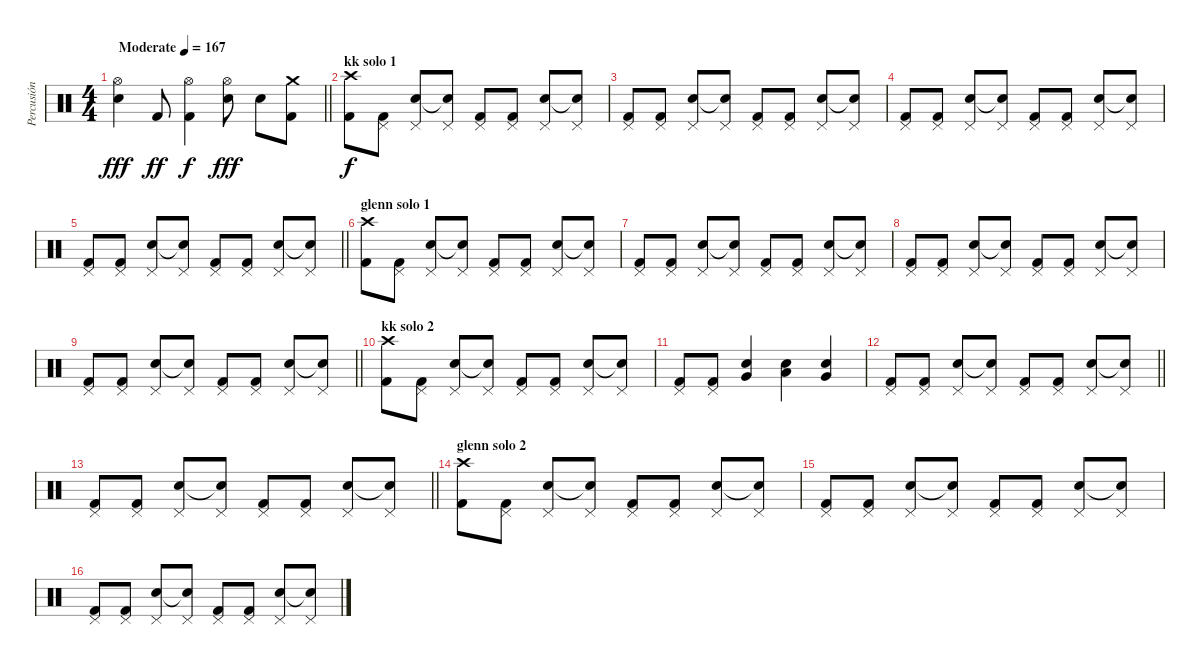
\track ("Percusión" "Percusión") {instrument percussion}
\staff {score}
\articulation defaults
\ts (4 4)
\tempo (167 "Moderate")
\clef neutral
\barLineRight lightlight
\ks c
("Hi-Hat (open)" "Snare (hit) 2").4{dy fff} "Kick (hit) 2".8{dy ff} ("Hi-Hat (open)" "Kick (hit) 2").4{dy f} ("Hi-Hat (open)" "Snare (hit) 2").8{dy fff} "Snare (hit) 2".8 ("Kick (hit) 2" "Crash medium (hit)").8 |
\section ("" "kk solo 1")
("Crash high (hit)" "Kick (hit) 2").8{dy f} ("Pedal Hi-Hat (hit)" "Kick (hit) 2").8 ("Pedal Hi-Hat (hit)" "Snare (hit) 2").8 ("Pedal Hi-Hat (hit)" "Snare (hit)"{t}).8 ("Pedal Hi-Hat (hit)" "Kick (hit) 2").8 ("Pedal Hi-Hat (hit)" "Kick (hit) 2").8 ("Pedal Hi-Hat (hit)" "Snare (hit) 2").8 ("Pedal Hi-Hat (hit)" "Snare (hit)"{t}).8 |
("Pedal Hi-Hat (hit)" "Kick (hit) 2").8 ("Pedal Hi-Hat (hit)" "Kick (hit) 2").8 ("Pedal Hi-Hat (hit)" "Snare (hit) 2").8 ("Pedal Hi-Hat (hit)" "Snare (hit)"{t}).8 ("Pedal Hi-Hat (hit)" "Kick (hit) 2").8 ("Pedal Hi-Hat (hit)" "Kick (hit) 2").8 ("Pedal Hi-Hat (hit)" "Snare (hit) 2").8 ("Pedal Hi-Hat (hit)" "Snare (hit)"{t}).8 |
("Pedal Hi-Hat (hit)" "Kick (hit) 2").8 ("Pedal Hi-Hat (hit)" "Kick (hit) 2").8 ("Pedal Hi-Hat (hit)" "Snare (hit) 2").8 ("Pedal Hi-Hat (hit)" "Snare (hit)"{t}).8 ("Pedal Hi-Hat (hit)" "Kick (hit) 2").8 ("Pedal Hi-Hat (hit)" "Kick (hit) 2").8 ("Pedal Hi-Hat (hit)" "Snare (hit) 2").8 ("Pedal Hi-Hat (hit)" "Snare (hit)"{t}).8 |
\barLineRight lightlight
("Pedal Hi-Hat (hit)" "Kick (hit) 2").8 ("Pedal Hi-Hat (hit)" "Kick (hit) 2").8 ("Pedal Hi-Hat (hit)" "Snare (hit) 2").8 ("Pedal Hi-Hat (hit)" "Snare (hit)"{t}).8 ("Pedal Hi-Hat (hit)" "Kick (hit) 2").8 ("Pedal Hi-Hat (hit)" "Kick (hit) 2").8 ("Pedal Hi-Hat (hit)" "Snare (hit) 2").8 ("Pedal Hi-Hat (hit)" "Snare (hit)"{t}).8 |
\section ("" "glenn solo 1")
("Crash high (hit)" "Kick (hit) 2").8 ("Pedal Hi-Hat (hit)" "Kick (hit) 2").8 ("Pedal Hi-Hat (hit)" "Snare (hit) 2").8 ("Pedal Hi-Hat (hit)" "Snare (hit)"{t}).8 ("Pedal Hi-Hat (hit)" "Kick (hit) 2").8 ("Pedal Hi-Hat (hit)" "Kick (hit) 2").8 ("Pedal Hi-Hat (hit)" "Snare (hit) 2").8 ("Pedal Hi-Hat (hit)" "Snare (hit)"{t}).8 |
("Pedal Hi-Hat (hit)" "Kick (hit) 2").8 ("Pedal Hi-Hat (hit)" "Kick (hit) 2").8 ("Pedal Hi-Hat (hit)" "Snare (hit) 2").8 ("Pedal Hi-Hat (hit)" "Snare (hit)"{t}).8 ("Pedal Hi-Hat (hit)" "Kick (hit) 2").8 ("Pedal Hi-Hat (hit)" "Kick (hit) 2").8 ("Pedal Hi-Hat (hit)" "Snare (hit) 2").8 ("Pedal Hi-Hat (hit)" "Snare (hit)"{t}).8 |
("Pedal Hi-Hat (hit)" "Kick (hit) 2").8 ("Pedal Hi-Hat (hit)" "Kick (hit) 2").8 ("Pedal Hi-Hat (hit)" "Snare (hit) 2").8 ("Pedal Hi-Hat (hit)" "Snare (hit)"{t}).8 ("Pedal Hi-Hat (hit)" "Kick (hit) 2").8 ("Pedal Hi-Hat (hit)" "Kick (hit) 2").8 ("Pedal Hi-Hat (hit)" "Snare (hit) 2").8 ("Pedal Hi-Hat (hit)" "Snare (hit)"{t}).8 |
\barLineRight lightlight
("Pedal Hi-Hat (hit)" "Kick (hit) 2").8 ("Pedal Hi-Hat (hit)" "Kick (hit) 2").8 ("Pedal Hi-Hat (hit)" "Snare (hit) 2").8 ("Pedal Hi-Hat (hit)" "Snare (hit)"{t}).8 ("Pedal Hi-Hat (hit)" "Kick (hit) 2").8 ("Pedal Hi-Hat (hit)" "Kick (hit) 2").8 ("Pedal Hi-Hat (hit)" "Snare (hit) 2").8 ("Pedal Hi-Hat (hit)" "Snare (hit)"{t}).8 |
\section ("" "kk solo 2")
("Crash high (hit)" "Kick (hit) 2").8 ("Pedal Hi-Hat (hit)" "Kick (hit) 2").8 ("Pedal Hi-Hat (hit)" "Snare (hit) 2").8 ("Pedal Hi-Hat (hit)" "Snare (hit)"{t}).8 ("Pedal Hi-Hat (hit)" "Kick (hit) 2").8 ("Pedal Hi-Hat (hit)" "Kick (hit) 2").8 ("Pedal Hi-Hat (hit)" "Snare (hit) 2").8 ("Pedal Hi-Hat (hit)" "Snare (hit)"{t}).8 |
("Pedal Hi-Hat (hit)" "Kick (hit) 2").8 ("Pedal Hi-Hat (hit)" "Kick (hit) 2").8 ("Very Low Tom (hit)" "Snare (hit) 2").4 ("Low Tom (hit)" "Snare (hit) 2").4 ("Very Low Tom (hit)" "Snare (hit) 2").4 |
\barLineRight lightlight
("Pedal Hi-Hat (hit)" "Kick (hit) 2").8 ("Pedal Hi-Hat (hit)" "Kick (hit) 2").8 ("Pedal Hi-Hat (hit)" "Snare (hit) 2").8 ("Pedal Hi-Hat (hit)" "Snare (hit)"{t}).8 ("Pedal Hi-Hat (hit)" "Kick (hit) 2").8 ("Pedal Hi-Hat (hit)" "Kick (hit) 2").8 ("Pedal Hi-Hat (hit)" "Snare (hit) 2").8 ("Pedal Hi-Hat (hit)" "Snare (hit)"{t}).8 |
\barLineRight lightlight
("Pedal Hi-Hat (hit)" "Kick (hit) 2").8 ("Pedal Hi-Hat (hit)" "Kick (hit) 2").8 ("Pedal Hi-Hat (hit)" "Snare (hit) 2").8 ("Pedal Hi-Hat (hit)" "Snare (hit)"{t}).8 ("Pedal Hi-Hat (hit)" "Kick (hit) 2").8 ("Pedal Hi-Hat (hit)" "Kick (hit) 2").8 ("Pedal Hi-Hat (hit)" "Snare (hit) 2").8 ("Pedal Hi-Hat (hit)" "Snare (hit)"{t}).8 |
\section ("" "glenn solo 2")
("Crash high (hit)" "Kick (hit) 2").8 ("Pedal Hi-Hat (hit)" "Kick (hit) 2").8 ("Pedal Hi-Hat (hit)" "Snare (hit) 2").8 ("Pedal Hi-Hat (hit)" "Snare (hit)"{t}).8 ("Pedal Hi-Hat (hit)" "Kick (hit) 2").8 ("Pedal Hi-Hat (hit)" "Kick (hit) 2").8 ("Pedal Hi-Hat (hit)" "Snare (hit) 2").8 ("Pedal Hi-Hat (hit)" "Snare (hit)"{t}).8 |
("Pedal Hi-Hat (hit)" "Kick (hit) 2").8 ("Pedal Hi-Hat (hit)" "Kick (hit) 2").8 ("Pedal Hi-Hat (hit)" "Snare (hit) 2").8 ("Pedal Hi-Hat (hit)" "Snare (hit)"{t}).8 ("Pedal Hi-Hat (hit)" "Kick (hit) 2").8 ("Pedal Hi-Hat (hit)" "Kick (hit) 2").8 ("Pedal Hi-Hat (hit)" "Snare (hit) 2").8 ("Pedal Hi-Hat (hit)" "Snare (hit)"{t}).8 |
("Pedal Hi-Hat (hit)" "Kick (hit) 2").8 ("Pedal Hi-Hat (hit)" "Kick (hit) 2").8 ("Pedal Hi-Hat (hit)" "Snare (hit) 2").8 ("Pedal Hi-Hat (hit)" "Snare (hit)"{t}).8 ("Pedal Hi-Hat (hit)" "Kick (hit) 2").8 ("Pedal Hi-Hat (hit)" "Kick (hit) 2").8 ("Pedal Hi-Hat (hit)" "Snare (hit) 2").8 ("Pedal Hi-Hat (hit)" "Snare (hit)"{t}).8
